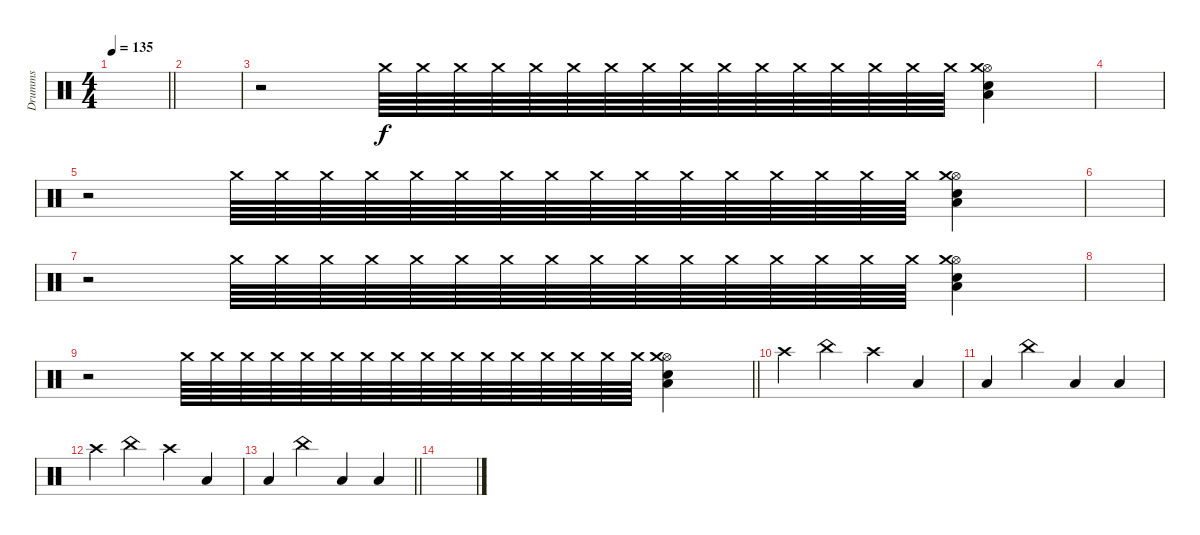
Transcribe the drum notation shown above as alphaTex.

\track ("Drumms" "Drumms") {instrument percussion}
\staff {score}
\articulation defaults
\ts (4 4)
\tempo 135
\clef neutral
\barLineRight lightlight
\ks c
|
\section ("" "")
|
r.2 "Crash medium (hit)".64 "Crash medium (hit)".64 "Crash medium (hit)".64 "Crash medium (hit)".64 "Crash medium (hit)".64 "Crash medium (hit)".64 "Crash medium (hit)".64 "Crash medium (hit)".64 "Crash medium (hit)".64 "Crash medium (hit)".64 "Crash medium (hit)".64 "Crash medium (hit)".64 "Crash medium (hit)".64 "Crash medium (hit)".64 "Crash medium (hit)".64 "Crash medium (hit)".64 ("Hi-Hat (open)" "Low Floor Tom (hit)" "Electric Snare (hit)" "Crash medium (hit)").4 |
|
r.2 "Crash medium (hit)".64 "Crash medium (hit)".64 "Crash medium (hit)".64 "Crash medium (hit)".64 "Crash medium (hit)".64 "Crash medium (hit)".64 "Crash medium (hit)".64 "Crash medium (hit)".64 "Crash medium (hit)".64 "Crash medium (hit)".64 "Crash medium (hit)".64 "Crash medium (hit)".64 "Crash medium (hit)".64 "Crash medium (hit)".64 "Crash medium (hit)".64 "Crash medium (hit)".64 ("Hi-Hat (open)" "Low Floor Tom (hit)" "Electric Snare (hit)" "Crash medium (hit)").4 |
|
r.2 "Crash medium (hit)".64 "Crash medium (hit)".64 "Crash medium (hit)".64 "Crash medium (hit)".64 "Crash medium (hit)".64 "Crash medium (hit)".64 "Crash medium (hit)".64 "Crash medium (hit)".64 "Crash medium (hit)".64 "Crash medium (hit)".64 "Crash medium (hit)".64 "Crash medium (hit)".64 "Crash medium (hit)".64 "Crash medium (hit)".64 "Crash medium (hit)".64 "Crash medium (hit)".64 ("Hi-Hat (open)" "Low Floor Tom (hit)" "Electric Snare (hit)" "Crash medium (hit)").4 |
|
\barLineRight lightlight
r.2 "Crash medium (hit)".64 "Crash medium (hit)".64 "Crash medium (hit)".64 "Crash medium (hit)".64 "Crash medium (hit)".64 "Crash medium (hit)".64 "Crash medium (hit)".64 "Crash medium (hit)".64 "Crash medium (hit)".64 "Crash medium (hit)".64 "Crash medium (hit)".64 "Crash medium (hit)".64 "Crash medium (hit)".64 "Crash medium (hit)".64 "Crash medium (hit)".64 "Crash medium (hit)".64 ("Hi-Hat (open)" "Low Floor Tom (hit)" "Electric Snare (hit)" "Crash medium (hit)").4 |
\section ("" "")
"Crash high (hit)".4 "China (hit)".4 "Crash high (hit)".4 "Low Floor Tom (hit)".4 |
"Low Tom (hit)".4 "China (hit)".4 "Low Tom (hit)".4 "Low Floor Tom (hit)".4 |
"Crash high (hit)".4 "China (hit)".4 "Crash high (hit)".4 "Low Floor Tom (hit)".4 |
\barLineRight lightlight "Low Tom (hit)".4 "China (hit)".4 "Low Tom (hit)".4 "Low Floor Tom (hit)".4
|
\section ("" "")
